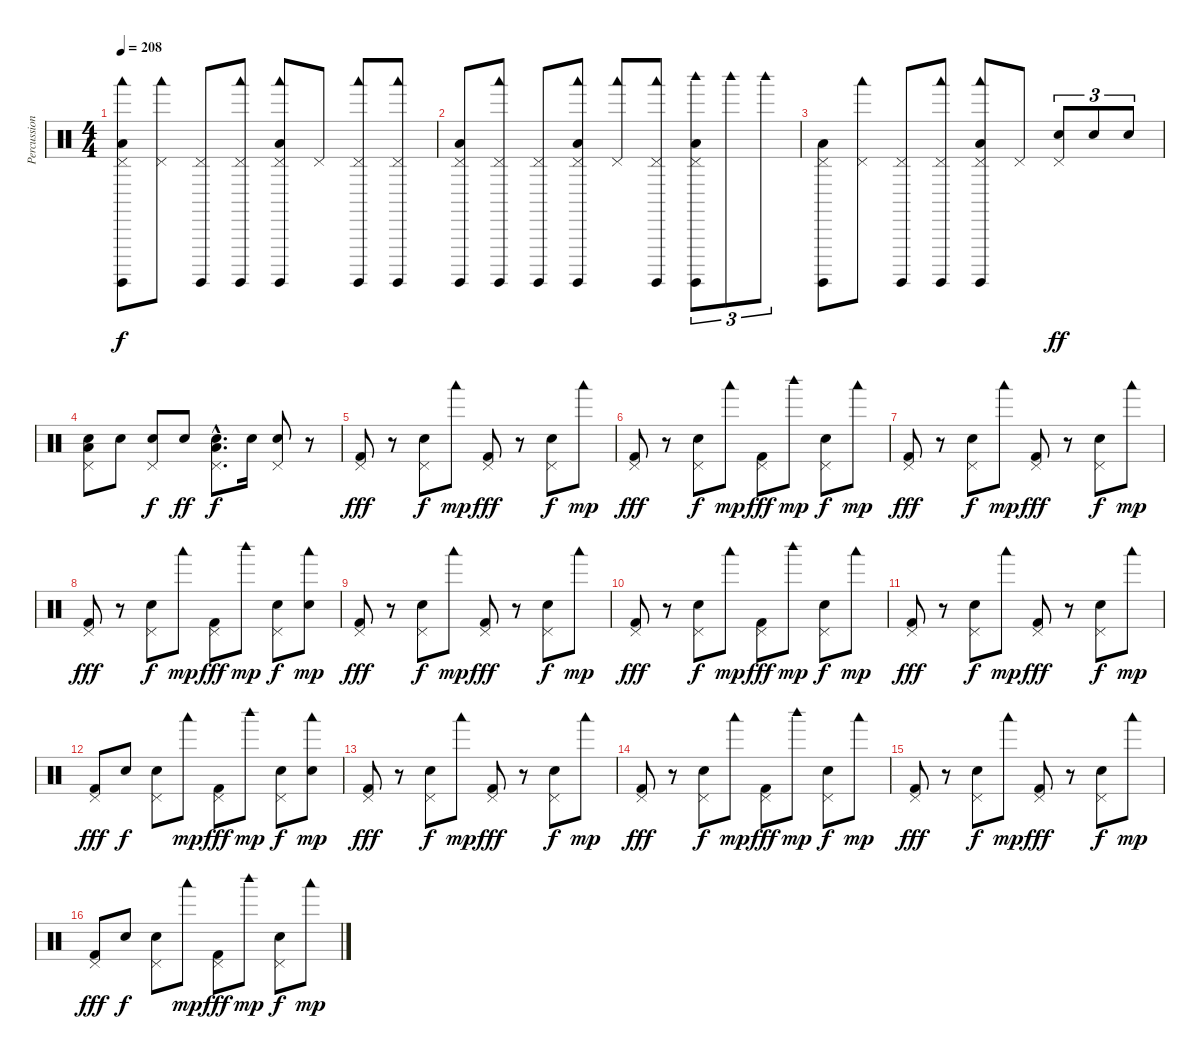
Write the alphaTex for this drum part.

\track ("Percussions" "Percussion") {instrument percussion}
\staff {score}
\articulation defaults
\ts (4 4)
\tempo 208
\clef neutral
\ks c
("Low Floor Tom (hit)" "Surdo (hit)" "Woodblock low (hit)" "Pedal Hi-Hat (hit)").8{bd 240 dy f} ("Woodblock low (hit)" "Pedal Hi-Hat (hit)").8 ("Surdo (hit)" "Pedal Hi-Hat (hit)").8 ("Surdo (hit)" "Woodblock low (hit)" "Pedal Hi-Hat (hit)").8 ("Low Floor Tom (hit)" "Surdo (hit)" "Woodblock low (hit)" "Pedal Hi-Hat (hit)").8{bd 240} "Pedal Hi-Hat (hit)".8 ("Surdo (hit)" "Woodblock low (hit)" "Pedal Hi-Hat (hit)").8 ("Surdo (hit)" "Woodblock low (hit)" "Pedal Hi-Hat (hit)").8 |
("Low Floor Tom (hit)" "Surdo (hit)" "Pedal Hi-Hat (hit)").8{bd 240} ("Surdo (hit)" "Woodblock low (hit)" "Pedal Hi-Hat (hit)").8 ("Surdo (hit)" "Pedal Hi-Hat (hit)").8 ("Low Floor Tom (hit)" "Surdo (hit)" "Woodblock low (hit)" "Pedal Hi-Hat (hit)").8{bd 240} ("Woodblock low (hit)" "Pedal Hi-Hat (hit)").8 ("Surdo (hit)" "Woodblock low (hit)" "Pedal Hi-Hat (hit)").8 ("Low Floor Tom (hit)" "Surdo (hit)" "Woodblock high (hit)" "Pedal Hi-Hat (hit)").8{tu (3 2)} "Woodblock high (hit)".8{tu (3 2)} "Woodblock high (hit)".8{tu (3 2)} |
("Low Floor Tom (hit)" "Surdo (hit)" "Pedal Hi-Hat (hit)").8{bd 240} ("Woodblock low (hit)" "Pedal Hi-Hat (hit)").8 ("Surdo (hit)" "Pedal Hi-Hat (hit)").8 ("Surdo (hit)" "Woodblock low (hit)" "Pedal Hi-Hat (hit)").8 ("Low Floor Tom (hit)" "Surdo (hit)" "Woodblock low (hit)" "Pedal Hi-Hat (hit)").8{bd 240} "Pedal Hi-Hat (hit)".8 ("Electric Snare (hit)" "Pedal Hi-Hat (hit)").8{tu (3 2) dy ff} "Electric Snare (hit)".8{tu (3 2)} "Electric Snare (hit)".8{tu (3 2)} |
("Low Floor Tom (hit)" "Electric Snare (hit)" "Pedal Hi-Hat (hit)").8 "Electric Snare (hit)".8 ("Snare (hit) 2" "Pedal Hi-Hat (hit)").8{dy f} "Electric Snare (hit)".8{dy ff} ("Low Floor Tom (hit)"{hac} "Snare (hit) 2"{hac} "Pedal Hi-Hat (hit)"{hac}).8{d dy f} "Electric Snare (hit)".16 ("Electric Snare (hit)" "Pedal Hi-Hat (hit)").8 r.8 |
("Pedal Hi-Hat (hit)" "Kick (hit) 2").8{dy fff} r.8 ("Pedal Hi-Hat (hit)" "Electric Snare (hit)").8{dy f} "Woodblock low (hit)".8{dy mp} ("Pedal Hi-Hat (hit)" "Kick (hit) 2").8{dy fff} r.8 ("Pedal Hi-Hat (hit)" "Electric Snare (hit)").8{dy f} "Woodblock low (hit)".8{dy mp} |
("Pedal Hi-Hat (hit)" "Kick (hit) 2").8{dy fff} r.8 ("Pedal Hi-Hat (hit)" "Electric Snare (hit)").8{dy f} "Woodblock low (hit)".8{dy mp} ("Pedal Hi-Hat (hit)" "Kick (hit) 2").8{dy fff} "Woodblock high (hit)".8{dy mp} ("Pedal Hi-Hat (hit)" "Electric Snare (hit)").8{dy f} "Woodblock low (hit)".8{dy mp} |
("Pedal Hi-Hat (hit)" "Kick (hit) 2").8{dy fff} r.8 ("Pedal Hi-Hat (hit)" "Electric Snare (hit)").8{dy f} "Woodblock low (hit)".8{dy mp} ("Pedal Hi-Hat (hit)" "Kick (hit) 2").8{dy fff} r.8 ("Pedal Hi-Hat (hit)" "Electric Snare (hit)").8{dy f} "Woodblock low (hit)".8{dy mp} |
("Pedal Hi-Hat (hit)" "Kick (hit) 2").8{dy fff} r.8 ("Pedal Hi-Hat (hit)" "Electric Snare (hit)").8{dy f} "Woodblock low (hit)".8{dy mp} ("Pedal Hi-Hat (hit)" "Kick (hit) 2").8{dy fff} "Woodblock high (hit)".8{dy mp} ("Pedal Hi-Hat (hit)" "Electric Snare (hit)").8{dy f} ("Electric Snare (hit)" "Woodblock low (hit)").8{dy mp} |
("Pedal Hi-Hat (hit)" "Kick (hit) 2").8{dy fff} r.8 ("Pedal Hi-Hat (hit)" "Electric Snare (hit)").8{dy f} "Woodblock low (hit)".8{dy mp} ("Pedal Hi-Hat (hit)" "Kick (hit) 2").8{dy fff} r.8 ("Pedal Hi-Hat (hit)" "Electric Snare (hit)").8{dy f} "Woodblock low (hit)".8{dy mp} |
("Pedal Hi-Hat (hit)" "Kick (hit) 2").8{dy fff} r.8 ("Pedal Hi-Hat (hit)" "Electric Snare (hit)").8{dy f} "Woodblock low (hit)".8{dy mp} ("Pedal Hi-Hat (hit)" "Kick (hit) 2").8{dy fff} "Woodblock high (hit)".8{dy mp} ("Pedal Hi-Hat (hit)" "Electric Snare (hit)").8{dy f} "Woodblock low (hit)".8{dy mp} |
("Pedal Hi-Hat (hit)" "Kick (hit) 2").8{dy fff} r.8 ("Pedal Hi-Hat (hit)" "Electric Snare (hit)").8{dy f} "Woodblock low (hit)".8{dy mp} ("Pedal Hi-Hat (hit)" "Kick (hit) 2").8{dy fff} r.8 ("Pedal Hi-Hat (hit)" "Electric Snare (hit)").8{dy f} "Woodblock low (hit)".8{dy mp} |
("Pedal Hi-Hat (hit)" "Kick (hit) 2").8{dy fff} "Electric Snare (hit)".8{dy f} ("Pedal Hi-Hat (hit)" "Electric Snare (hit)").8 "Woodblock low (hit)".8{dy mp} ("Pedal Hi-Hat (hit)" "Kick (hit) 2").8{dy fff} "Woodblock high (hit)".8{dy mp} ("Pedal Hi-Hat (hit)" "Electric Snare (hit)").8{dy f} ("Electric Snare (hit)" "Woodblock low (hit)").8{dy mp} |
("Pedal Hi-Hat (hit)" "Kick (hit) 2").8{dy fff} r.8 ("Pedal Hi-Hat (hit)" "Electric Snare (hit)").8{dy f} "Woodblock low (hit)".8{dy mp} ("Pedal Hi-Hat (hit)" "Kick (hit) 2").8{dy fff} r.8 ("Pedal Hi-Hat (hit)" "Electric Snare (hit)").8{dy f} "Woodblock low (hit)".8{dy mp} |
("Pedal Hi-Hat (hit)" "Kick (hit) 2").8{dy fff} r.8 ("Pedal Hi-Hat (hit)" "Electric Snare (hit)").8{dy f} "Woodblock low (hit)".8{dy mp} ("Pedal Hi-Hat (hit)" "Kick (hit) 2").8{dy fff} "Woodblock high (hit)".8{dy mp} ("Pedal Hi-Hat (hit)" "Electric Snare (hit)").8{dy f} "Woodblock low (hit)".8{dy mp} |
("Pedal Hi-Hat (hit)" "Kick (hit) 2").8{dy fff} r.8 ("Pedal Hi-Hat (hit)" "Electric Snare (hit)").8{dy f} "Woodblock low (hit)".8{dy mp} ("Pedal Hi-Hat (hit)" "Kick (hit) 2").8{dy fff} r.8 ("Pedal Hi-Hat (hit)" "Electric Snare (hit)").8{dy f} "Woodblock low (hit)".8{dy mp} |
("Pedal Hi-Hat (hit)" "Kick (hit) 2").8{dy fff} "Electric Snare (hit)".8{dy f} ("Pedal Hi-Hat (hit)" "Electric Snare (hit)").8 "Woodblock low (hit)".8{dy mp} ("Pedal Hi-Hat (hit)" "Kick (hit) 2").8{dy fff} "Woodblock high (hit)".8{dy mp} ("Pedal Hi-Hat (hit)" "Electric Snare (hit)").8{dy f} "Woodblock low (hit)".8{dy mp}
